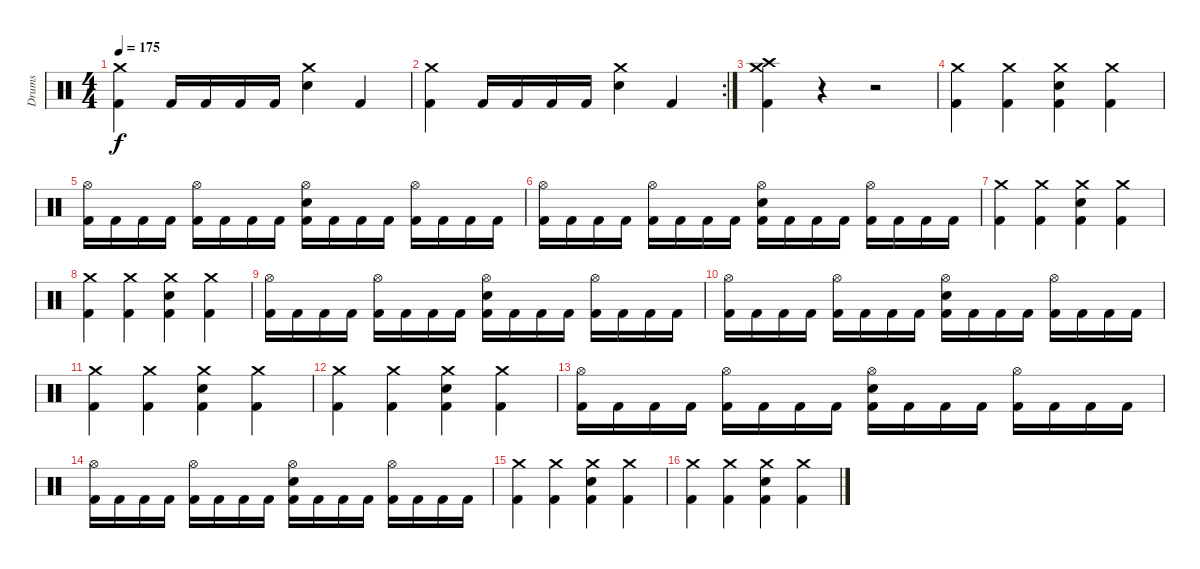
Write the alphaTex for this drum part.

\track ("Drums" "Drums") {instrument percussion}
\staff {score}
\articulation defaults
\ts (4 4)
\tempo 175
\clef neutral
\ks c
("Crash medium (hit)" "Kick (hit) 2").4{dy f} "Kick (hit) 2".16 "Kick (hit) 2".16 "Kick (hit) 2".16 "Kick (hit) 2".16 ("Crash medium (hit)" "Snare (hit) 2").4 "Kick (hit) 2".4 |
\rc 2
("Crash medium (hit)" "Kick (hit) 2").4 "Kick (hit) 2".16 "Kick (hit) 2".16 "Kick (hit) 2".16 "Kick (hit) 2".16 ("Crash medium (hit)" "Snare (hit) 2").4 "Kick (hit) 2".4 |
("Crash medium (hit)" "Crash high (hit)" "Kick (hit) 2").4 r.4 r.2 |
("Crash medium (hit)" "Kick (hit) 2").4 ("Crash medium (hit)" "Kick (hit) 2").4 ("Crash medium (hit)" "Snare (hit) 2" "Kick (hit) 2").4 ("Crash medium (hit)" "Kick (hit) 2").4 |
("Hi-Hat (open)" "Kick (hit) 2").16 "Kick (hit) 2".16 "Kick (hit) 2".16 "Kick (hit) 2".16 ("Hi-Hat (open)" "Kick (hit) 2").16 "Kick (hit) 2".16 "Kick (hit) 2".16 "Kick (hit) 2".16 ("Hi-Hat (open)" "Snare (hit) 2" "Kick (hit) 2").16 "Kick (hit) 2".16 "Kick (hit) 2".16 "Kick (hit) 2".16 ("Hi-Hat (open)" "Kick (hit) 2").16 "Kick (hit) 2".16 "Kick (hit) 2".16 "Kick (hit) 2".16 |
("Hi-Hat (open)" "Kick (hit) 2").16 "Kick (hit) 2".16 "Kick (hit) 2".16 "Kick (hit) 2".16 ("Hi-Hat (open)" "Kick (hit) 2").16 "Kick (hit) 2".16 "Kick (hit) 2".16 "Kick (hit) 2".16 ("Hi-Hat (open)" "Snare (hit) 2" "Kick (hit) 2").16 "Kick (hit) 2".16 "Kick (hit) 2".16 "Kick (hit) 2".16 ("Hi-Hat (open)" "Kick (hit) 2").16 "Kick (hit) 2".16 "Kick (hit) 2".16 "Kick (hit) 2".16 |
("Crash medium (hit)" "Kick (hit) 2").4 ("Crash medium (hit)" "Kick (hit) 2").4 ("Crash medium (hit)" "Snare (hit) 2" "Kick (hit) 2").4 ("Crash medium (hit)" "Kick (hit) 2").4 |
("Crash medium (hit)" "Kick (hit) 2").4 ("Crash medium (hit)" "Kick (hit) 2").4 ("Crash medium (hit)" "Snare (hit) 2" "Kick (hit) 2").4 ("Crash medium (hit)" "Kick (hit) 2").4 |
("Hi-Hat (open)" "Kick (hit) 2").16 "Kick (hit) 2".16 "Kick (hit) 2".16 "Kick (hit) 2".16 ("Hi-Hat (open)" "Kick (hit) 2").16 "Kick (hit) 2".16 "Kick (hit) 2".16 "Kick (hit) 2".16 ("Hi-Hat (open)" "Snare (hit) 2" "Kick (hit) 2").16 "Kick (hit) 2".16 "Kick (hit) 2".16 "Kick (hit) 2".16 ("Hi-Hat (open)" "Kick (hit) 2").16 "Kick (hit) 2".16 "Kick (hit) 2".16 "Kick (hit) 2".16 |
("Hi-Hat (open)" "Kick (hit) 2").16 "Kick (hit) 2".16 "Kick (hit) 2".16 "Kick (hit) 2".16 ("Hi-Hat (open)" "Kick (hit) 2").16 "Kick (hit) 2".16 "Kick (hit) 2".16 "Kick (hit) 2".16 ("Hi-Hat (open)" "Snare (hit) 2" "Kick (hit) 2").16 "Kick (hit) 2".16 "Kick (hit) 2".16 "Kick (hit) 2".16 ("Hi-Hat (open)" "Kick (hit) 2").16 "Kick (hit) 2".16 "Kick (hit) 2".16 "Kick (hit) 2".16 |
("Crash medium (hit)" "Kick (hit) 2").4 ("Crash medium (hit)" "Kick (hit) 2").4 ("Crash medium (hit)" "Snare (hit) 2" "Kick (hit) 2").4 ("Crash medium (hit)" "Kick (hit) 2").4 |
("Crash medium (hit)" "Kick (hit) 2").4 ("Crash medium (hit)" "Kick (hit) 2").4 ("Crash medium (hit)" "Snare (hit) 2" "Kick (hit) 2").4 ("Crash medium (hit)" "Kick (hit) 2").4 |
("Hi-Hat (open)" "Kick (hit) 2").16 "Kick (hit) 2".16 "Kick (hit) 2".16 "Kick (hit) 2".16 ("Hi-Hat (open)" "Kick (hit) 2").16 "Kick (hit) 2".16 "Kick (hit) 2".16 "Kick (hit) 2".16 ("Hi-Hat (open)" "Snare (hit) 2" "Kick (hit) 2").16 "Kick (hit) 2".16 "Kick (hit) 2".16 "Kick (hit) 2".16 ("Hi-Hat (open)" "Kick (hit) 2").16 "Kick (hit) 2".16 "Kick (hit) 2".16 "Kick (hit) 2".16 |
("Hi-Hat (open)" "Kick (hit) 2").16 "Kick (hit) 2".16 "Kick (hit) 2".16 "Kick (hit) 2".16 ("Hi-Hat (open)" "Kick (hit) 2").16 "Kick (hit) 2".16 "Kick (hit) 2".16 "Kick (hit) 2".16 ("Hi-Hat (open)" "Snare (hit) 2" "Kick (hit) 2").16 "Kick (hit) 2".16 "Kick (hit) 2".16 "Kick (hit) 2".16 ("Hi-Hat (open)" "Kick (hit) 2").16 "Kick (hit) 2".16 "Kick (hit) 2".16 "Kick (hit) 2".16 |
("Crash medium (hit)" "Kick (hit) 2").4 ("Crash medium (hit)" "Kick (hit) 2").4 ("Crash medium (hit)" "Snare (hit) 2" "Kick (hit) 2").4 ("Crash medium (hit)" "Kick (hit) 2").4 |
("Crash medium (hit)" "Kick (hit) 2").4 ("Crash medium (hit)" "Kick (hit) 2").4 ("Crash medium (hit)" "Snare (hit) 2" "Kick (hit) 2").4 ("Crash medium (hit)" "Kick (hit) 2").4
